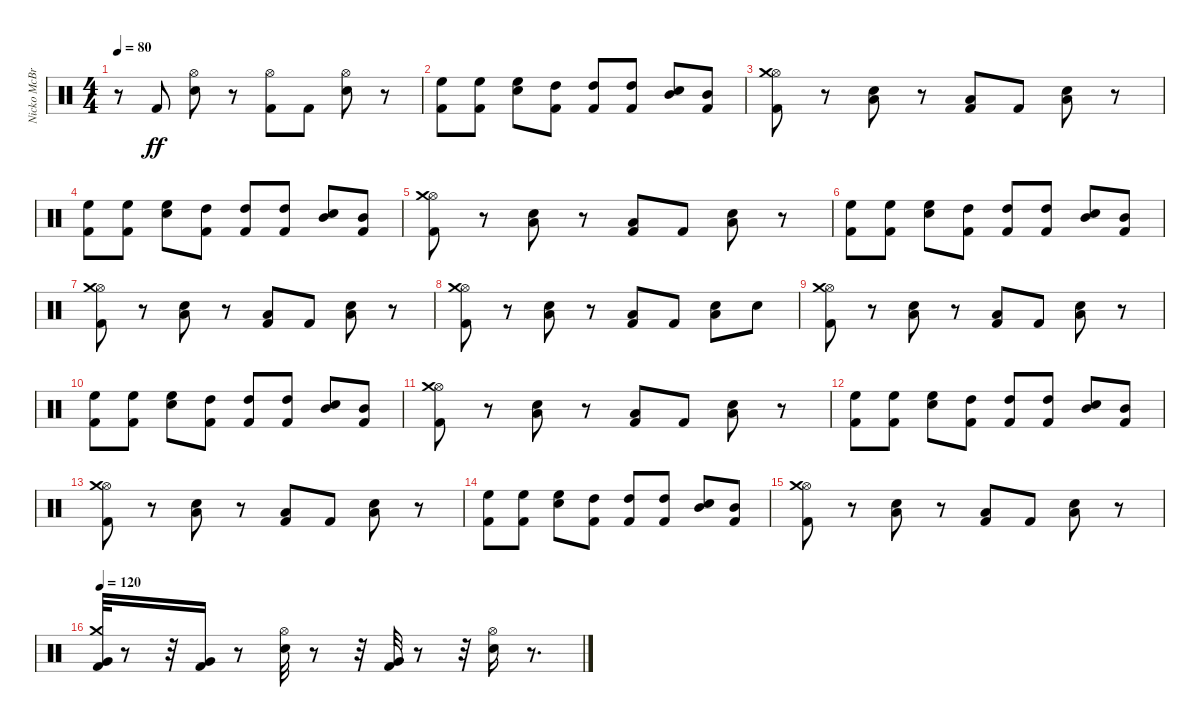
\track ("Nicko McBrain" "Nicko McBr") {instrument percussion}
\staff {score}
\articulation defaults
\ts (4 4)
\tempo 80
\clef neutral
\ks c
r.8{dy ff} "Kick (hit) 2".8 ("Electric Snare (hit)" "Hi-Hat (open)").8 r.8 ("Kick (hit) 2" "Hi-Hat (open)").8 "Kick (hit) 2".8 ("Electric Snare (hit)" "Hi-Hat (open)").8 r.8 |
("Kick (hit) 2" "High Floor Tom (hit)").8 ("Kick (hit) 2" "High Floor Tom (hit)").8 ("Electric Snare (hit)" "High Floor Tom (hit)").8 ("Kick (hit) 2" "High Tom (hit)").8 ("Kick (hit) 2" "High Tom (hit)").8 ("Kick (hit) 2" "High Tom (hit)").8 ("Electric Snare (hit)" "Mid Tom (hit)").8 ("Kick (hit) 2" "Mid Tom (hit)").8 |
("Kick (hit) 2" "Hi-Hat (open)" "Crash medium (hit)").8 r.8 ("Electric Snare (hit)" "Low Tom (hit)").8 r.8 ("Kick (hit) 2" "Low Tom (hit)").8 "Kick (hit) 2".8 ("Electric Snare (hit)" "Low Tom (hit)").8 r.8 |
("Kick (hit) 2" "High Floor Tom (hit)").8 ("Kick (hit) 2" "High Floor Tom (hit)").8 ("Electric Snare (hit)" "High Floor Tom (hit)").8 ("Kick (hit) 2" "High Tom (hit)").8 ("Kick (hit) 2" "High Tom (hit)").8 ("Kick (hit) 2" "High Tom (hit)").8 ("Electric Snare (hit)" "Mid Tom (hit)").8 ("Kick (hit) 2" "Mid Tom (hit)").8 |
("Kick (hit) 2" "Hi-Hat (open)" "Crash medium (hit)").8 r.8 ("Electric Snare (hit)" "Low Tom (hit)").8 r.8 ("Kick (hit) 2" "Low Tom (hit)").8 "Kick (hit) 2".8 ("Electric Snare (hit)" "Low Tom (hit)").8 r.8 |
("Kick (hit) 2" "High Floor Tom (hit)").8 ("Kick (hit) 2" "High Floor Tom (hit)").8 ("Electric Snare (hit)" "High Floor Tom (hit)").8 ("Kick (hit) 2" "High Tom (hit)").8 ("Kick (hit) 2" "High Tom (hit)").8 ("Kick (hit) 2" "High Tom (hit)").8 ("Electric Snare (hit)" "Mid Tom (hit)").8 ("Kick (hit) 2" "Mid Tom (hit)").8 |
("Kick (hit) 2" "Hi-Hat (open)" "Crash medium (hit)").8 r.8 ("Electric Snare (hit)" "Low Tom (hit)").8 r.8 ("Kick (hit) 2" "Low Tom (hit)").8 "Kick (hit) 2".8 ("Electric Snare (hit)" "Low Tom (hit)").8 r.8 |
("Kick (hit) 2" "Hi-Hat (open)" "Crash medium (hit)").8 r.8 ("Electric Snare (hit)" "Low Tom (hit)").8 r.8 ("Kick (hit) 2" "Low Tom (hit)").8 "Kick (hit) 2".8 ("Electric Snare (hit)" "Low Tom (hit)").8 "Electric Snare (hit)".8 |
("Kick (hit) 2" "Hi-Hat (open)" "Crash medium (hit)").8 r.8 ("Electric Snare (hit)" "Low Tom (hit)").8 r.8 ("Kick (hit) 2" "Low Tom (hit)").8 "Kick (hit) 2".8 ("Electric Snare (hit)" "Low Tom (hit)").8 r.8 |
("Kick (hit) 2" "High Floor Tom (hit)").8 ("Kick (hit) 2" "High Floor Tom (hit)").8 ("Electric Snare (hit)" "High Floor Tom (hit)").8 ("Kick (hit) 2" "High Tom (hit)").8 ("Kick (hit) 2" "High Tom (hit)").8 ("Kick (hit) 2" "High Tom (hit)").8 ("Electric Snare (hit)" "Mid Tom (hit)").8 ("Kick (hit) 2" "Mid Tom (hit)").8 |
("Kick (hit) 2" "Hi-Hat (open)" "Crash medium (hit)").8 r.8 ("Electric Snare (hit)" "Low Tom (hit)").8 r.8 ("Kick (hit) 2" "Low Tom (hit)").8 "Kick (hit) 2".8 ("Electric Snare (hit)" "Low Tom (hit)").8 r.8 |
("Kick (hit) 2" "High Floor Tom (hit)").8 ("Kick (hit) 2" "High Floor Tom (hit)").8 ("Electric Snare (hit)" "High Floor Tom (hit)").8 ("Kick (hit) 2" "High Tom (hit)").8 ("Kick (hit) 2" "High Tom (hit)").8 ("Kick (hit) 2" "High Tom (hit)").8 ("Electric Snare (hit)" "Mid Tom (hit)").8 ("Kick (hit) 2" "Mid Tom (hit)").8 |
("Kick (hit) 2" "Hi-Hat (open)" "Crash medium (hit)").8 r.8 ("Electric Snare (hit)" "Low Tom (hit)").8 r.8 ("Kick (hit) 2" "Low Tom (hit)").8 "Kick (hit) 2".8 ("Electric Snare (hit)" "Low Tom (hit)").8 r.8 |
("Kick (hit) 2" "High Floor Tom (hit)").8 ("Kick (hit) 2" "High Floor Tom (hit)").8 ("Electric Snare (hit)" "High Floor Tom (hit)").8 ("Kick (hit) 2" "High Tom (hit)").8 ("Kick (hit) 2" "High Tom (hit)").8 ("Kick (hit) 2" "High Tom (hit)").8 ("Electric Snare (hit)" "Mid Tom (hit)").8 ("Kick (hit) 2" "Mid Tom (hit)").8 |
("Kick (hit) 2" "Hi-Hat (open)" "Crash medium (hit)").8 r.8 ("Electric Snare (hit)" "Low Tom (hit)").8 r.8 ("Kick (hit) 2" "Low Tom (hit)").8 "Kick (hit) 2".8 ("Electric Snare (hit)" "Low Tom (hit)").8 r.8 |
\tempo 122
\tempo 120
("Kick (hit) 2" "Very Low Tom (hit)" "Crash medium (hit)").32 r.8 r.32 ("Kick (hit) 2" "Very Low Tom (hit)").16 r.8 ("Electric Snare (hit)" "Hi-Hat (open)").32 r.8 r.32 ("Kick (hit) 2" "Very Low Tom (hit)").32 r.8 r.32 ("Electric Snare (hit)" "Hi-Hat (open)").16 r.8{d}
